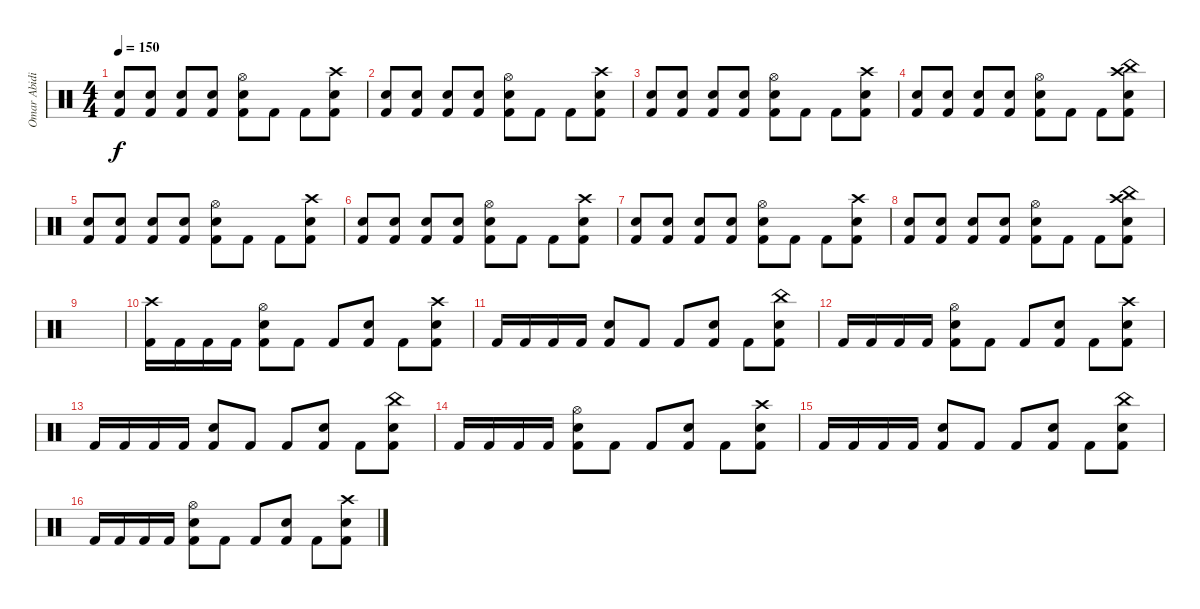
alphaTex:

\track ("Omar Abidi" "Omar Abidi") {instrument percussion}
\staff {score}
\articulation defaults
\ts (4 4)
\tempo 150
\clef neutral
\ks c
("Snare (hit) 2" "Kick (hit) 2").8{dy f} ("Snare (hit) 2" "Kick (hit) 2").8 ("Snare (hit) 2" "Kick (hit) 2").8 ("Snare (hit) 2" "Kick (hit) 2").8 ("Hi-Hat (open)" "Snare (hit) 2" "Kick (hit) 2").8 "Kick (hit) 2".8 "Kick (hit) 2".8 ("Crash high (hit)" "Snare (hit) 2" "Kick (hit) 2").8 |
("Snare (hit) 2" "Kick (hit) 2").8 ("Snare (hit) 2" "Kick (hit) 2").8 ("Snare (hit) 2" "Kick (hit) 2").8 ("Snare (hit) 2" "Kick (hit) 2").8 ("Hi-Hat (open)" "Snare (hit) 2" "Kick (hit) 2").8 "Kick (hit) 2".8 "Kick (hit) 2".8 ("Crash high (hit)" "Snare (hit) 2" "Kick (hit) 2").8 |
("Snare (hit) 2" "Kick (hit) 2").8 ("Snare (hit) 2" "Kick (hit) 2").8 ("Snare (hit) 2" "Kick (hit) 2").8 ("Snare (hit) 2" "Kick (hit) 2").8 ("Hi-Hat (open)" "Snare (hit) 2" "Kick (hit) 2").8 "Kick (hit) 2".8 "Kick (hit) 2".8 ("Crash high (hit)" "Snare (hit) 2" "Kick (hit) 2").8 |
("Snare (hit) 2" "Kick (hit) 2").8 ("Snare (hit) 2" "Kick (hit) 2").8 ("Snare (hit) 2" "Kick (hit) 2").8 ("Snare (hit) 2" "Kick (hit) 2").8 ("Hi-Hat (open)" "Snare (hit) 2" "Kick (hit) 2").8 "Kick (hit) 2".8 "Kick (hit) 2".8 ("China (hit)" "Crash high (hit)" "Snare (hit) 2" "Kick (hit) 2").8 |
("Snare (hit) 2" "Kick (hit) 2").8 ("Snare (hit) 2" "Kick (hit) 2").8 ("Snare (hit) 2" "Kick (hit) 2").8 ("Snare (hit) 2" "Kick (hit) 2").8 ("Hi-Hat (open)" "Snare (hit) 2" "Kick (hit) 2").8 "Kick (hit) 2".8 "Kick (hit) 2".8 ("Crash high (hit)" "Snare (hit) 2" "Kick (hit) 2").8 |
("Snare (hit) 2" "Kick (hit) 2").8 ("Snare (hit) 2" "Kick (hit) 2").8 ("Snare (hit) 2" "Kick (hit) 2").8 ("Snare (hit) 2" "Kick (hit) 2").8 ("Hi-Hat (open)" "Snare (hit) 2" "Kick (hit) 2").8 "Kick (hit) 2".8 "Kick (hit) 2".8 ("Crash high (hit)" "Snare (hit) 2" "Kick (hit) 2").8 |
("Snare (hit) 2" "Kick (hit) 2").8 ("Snare (hit) 2" "Kick (hit) 2").8 ("Snare (hit) 2" "Kick (hit) 2").8 ("Snare (hit) 2" "Kick (hit) 2").8 ("Hi-Hat (open)" "Snare (hit) 2" "Kick (hit) 2").8 "Kick (hit) 2".8 "Kick (hit) 2".8 ("Crash high (hit)" "Snare (hit) 2" "Kick (hit) 2").8 |
("Snare (hit) 2" "Kick (hit) 2").8 ("Snare (hit) 2" "Kick (hit) 2").8 ("Snare (hit) 2" "Kick (hit) 2").8 ("Snare (hit) 2" "Kick (hit) 2").8 ("Hi-Hat (open)" "Snare (hit) 2" "Kick (hit) 2").8 "Kick (hit) 2".8 "Kick (hit) 2".8 ("China (hit)" "Crash high (hit)" "Snare (hit) 2" "Kick (hit) 2").8 |
|
("Crash high (hit)" "Kick (hit) 2").16 "Kick (hit) 2".16 "Kick (hit) 2".16 "Kick (hit) 2".16 ("Hi-Hat (open)" "Snare (hit) 2" "Kick (hit) 2").8 "Kick (hit) 2".8 "Kick (hit) 2".8 ("Snare (hit) 2" "Kick (hit) 2").8 "Kick (hit) 2".8 ("Crash high (hit)" "Snare (hit) 2" "Kick (hit) 2").8 |
"Kick (hit) 2".16 "Kick (hit) 2".16 "Kick (hit) 2".16 "Kick (hit) 2".16 ("Snare (hit) 2" "Kick (hit) 2").8 "Kick (hit) 2".8 "Kick (hit) 2".8 ("Snare (hit) 2" "Kick (hit) 2").8 "Kick (hit) 2".8 ("China (hit)" "Snare (hit) 2" "Kick (hit) 2").8 |
"Kick (hit) 2".16 "Kick (hit) 2".16 "Kick (hit) 2".16 "Kick (hit) 2".16 ("Hi-Hat (open)" "Snare (hit) 2" "Kick (hit) 2").8 "Kick (hit) 2".8 "Kick (hit) 2".8 ("Snare (hit) 2" "Kick (hit) 2").8 "Kick (hit) 2".8 ("Crash high (hit)" "Snare (hit) 2" "Kick (hit) 2").8 |
"Kick (hit) 2".16 "Kick (hit) 2".16 "Kick (hit) 2".16 "Kick (hit) 2".16 ("Snare (hit) 2" "Kick (hit) 2").8 "Kick (hit) 2".8 "Kick (hit) 2".8 ("Snare (hit) 2" "Kick (hit) 2").8 "Kick (hit) 2".8 ("China (hit)" "Snare (hit) 2" "Kick (hit) 2").8 |
"Kick (hit) 2".16 "Kick (hit) 2".16 "Kick (hit) 2".16 "Kick (hit) 2".16 ("Hi-Hat (open)" "Snare (hit) 2" "Kick (hit) 2").8 "Kick (hit) 2".8 "Kick (hit) 2".8 ("Snare (hit) 2" "Kick (hit) 2").8 "Kick (hit) 2".8 ("Crash high (hit)" "Snare (hit) 2" "Kick (hit) 2").8 |
"Kick (hit) 2".16 "Kick (hit) 2".16 "Kick (hit) 2".16 "Kick (hit) 2".16 ("Snare (hit) 2" "Kick (hit) 2").8 "Kick (hit) 2".8 "Kick (hit) 2".8 ("Snare (hit) 2" "Kick (hit) 2").8 "Kick (hit) 2".8 ("China (hit)" "Snare (hit) 2" "Kick (hit) 2").8 |
"Kick (hit) 2".16 "Kick (hit) 2".16 "Kick (hit) 2".16 "Kick (hit) 2".16 ("Hi-Hat (open)" "Snare (hit) 2" "Kick (hit) 2").8 "Kick (hit) 2".8 "Kick (hit) 2".8 ("Snare (hit) 2" "Kick (hit) 2").8 "Kick (hit) 2".8 ("Crash high (hit)" "Snare (hit) 2" "Kick (hit) 2").8
